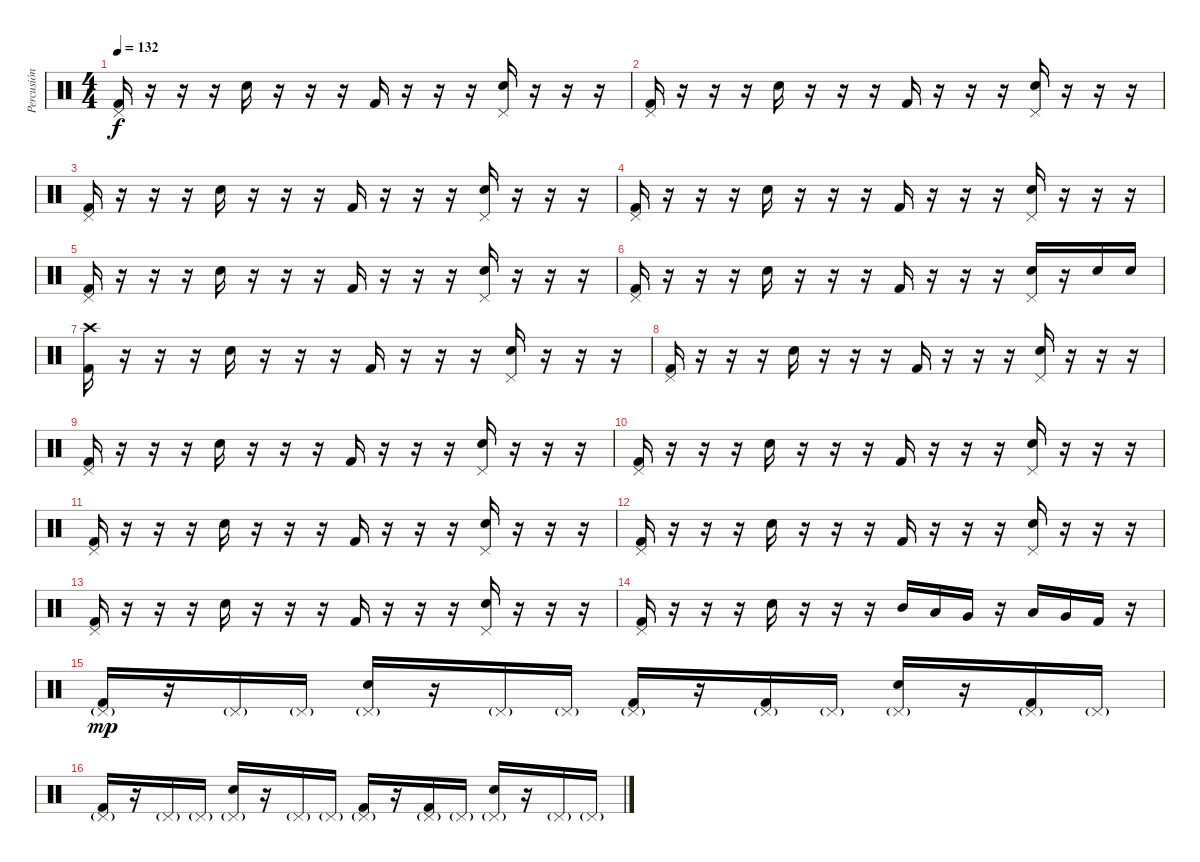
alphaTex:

\track ("Percusión" "Percusión") {instrument percussion}
\staff {score}
\articulation defaults
\ts (4 4)
\tempo 132
\clef neutral
\ks c
("Pedal Hi-Hat (hit)" "Kick (hit) 2").16{dy f} r.16 r.16 r.16 "Electric Snare (hit)".16 r.16 r.16 r.16 "Kick (hit) 2".16 r.16 r.16 r.16 ("Pedal Hi-Hat (hit)" "Electric Snare (hit)").16 r.16 r.16 r.16 |
("Pedal Hi-Hat (hit)" "Kick (hit) 2").16 r.16 r.16 r.16 "Electric Snare (hit)".16 r.16 r.16 r.16 "Kick (hit) 2".16 r.16 r.16 r.16 ("Pedal Hi-Hat (hit)" "Electric Snare (hit)").16 r.16 r.16 r.16 |
("Pedal Hi-Hat (hit)" "Kick (hit) 2").16 r.16 r.16 r.16 "Electric Snare (hit)".16 r.16 r.16 r.16 "Kick (hit) 2".16 r.16 r.16 r.16 ("Pedal Hi-Hat (hit)" "Electric Snare (hit)").16 r.16 r.16 r.16 |
("Pedal Hi-Hat (hit)" "Kick (hit) 2").16 r.16 r.16 r.16 "Electric Snare (hit)".16 r.16 r.16 r.16 "Kick (hit) 2".16 r.16 r.16 r.16 ("Pedal Hi-Hat (hit)" "Electric Snare (hit)").16 r.16 r.16 r.16 |
("Pedal Hi-Hat (hit)" "Kick (hit) 2").16 r.16 r.16 r.16 "Electric Snare (hit)".16 r.16 r.16 r.16 "Kick (hit) 2".16 r.16 r.16 r.16 ("Pedal Hi-Hat (hit)" "Electric Snare (hit)").16 r.16 r.16 r.16 |
("Pedal Hi-Hat (hit)" "Kick (hit) 2").16 r.16 r.16 r.16 "Electric Snare (hit)".16 r.16 r.16 r.16 "Kick (hit) 2".16 r.16 r.16 r.16 ("Pedal Hi-Hat (hit)" "Electric Snare (hit)").16 r.16 "Electric Snare (hit)".16 "Electric Snare (hit)".16 |
("Kick (hit) 2" "Crash high (hit)").16 r.16 r.16 r.16 "Electric Snare (hit)".16 r.16 r.16 r.16 "Kick (hit) 2".16 r.16 r.16 r.16 ("Pedal Hi-Hat (hit)" "Electric Snare (hit)").16 r.16 r.16 r.16 |
("Pedal Hi-Hat (hit)" "Kick (hit) 2").16 r.16 r.16 r.16 "Electric Snare (hit)".16 r.16 r.16 r.16 "Kick (hit) 2".16 r.16 r.16 r.16 ("Pedal Hi-Hat (hit)" "Electric Snare (hit)").16 r.16 r.16 r.16 |
("Pedal Hi-Hat (hit)" "Kick (hit) 2").16 r.16 r.16 r.16 "Electric Snare (hit)".16 r.16 r.16 r.16 "Kick (hit) 2".16 r.16 r.16 r.16 ("Pedal Hi-Hat (hit)" "Electric Snare (hit)").16 r.16 r.16 r.16 |
("Pedal Hi-Hat (hit)" "Kick (hit) 2").16 r.16 r.16 r.16 "Electric Snare (hit)".16 r.16 r.16 r.16 "Kick (hit) 2".16 r.16 r.16 r.16 ("Pedal Hi-Hat (hit)" "Electric Snare (hit)").16 r.16 r.16 r.16 |
("Pedal Hi-Hat (hit)" "Kick (hit) 2").16 r.16 r.16 r.16 "Electric Snare (hit)".16 r.16 r.16 r.16 "Kick (hit) 2".16 r.16 r.16 r.16 ("Pedal Hi-Hat (hit)" "Electric Snare (hit)").16 r.16 r.16 r.16 |
("Pedal Hi-Hat (hit)" "Kick (hit) 2").16 r.16 r.16 r.16 "Electric Snare (hit)".16 r.16 r.16 r.16 "Kick (hit) 2".16 r.16 r.16 r.16 ("Pedal Hi-Hat (hit)" "Electric Snare (hit)").16 r.16 r.16 r.16 |
("Pedal Hi-Hat (hit)" "Kick (hit) 2").16 r.16 r.16 r.16 "Electric Snare (hit)".16 r.16 r.16 r.16 "Kick (hit) 2".16 r.16 r.16 r.16 ("Pedal Hi-Hat (hit)" "Electric Snare (hit)").16 r.16 r.16 r.16 |
("Pedal Hi-Hat (hit)" "Kick (hit) 2").16 r.16 r.16 r.16 "Electric Snare (hit)".16 r.16 r.16 r.16 "Mid Tom (hit)".16 "Low Tom (hit)".16 "Very Low Tom (hit)".16 r.16 "Low Tom (hit)".16 "Very Low Tom (hit)".16 "Kick (hit) 2".16 r.16 |
("Pedal Hi-Hat (hit)"{g} "Kick (hit) 2").16{dy mp} r.16 "Pedal Hi-Hat (hit)"{g}.16 "Pedal Hi-Hat (hit)"{g}.16 ("Pedal Hi-Hat (hit)"{g} "Electric Snare (hit)").16 r.16 "Pedal Hi-Hat (hit)"{g}.16 "Pedal Hi-Hat (hit)"{g}.16 ("Pedal Hi-Hat (hit)"{g} "Kick (hit) 2").16 r.16 ("Pedal Hi-Hat (hit)"{g} "Kick (hit) 2").16 "Pedal Hi-Hat (hit)"{g}.16 ("Pedal Hi-Hat (hit)"{g} "Electric Snare (hit)").16 r.16 ("Pedal Hi-Hat (hit)"{g} "Kick (hit) 2").16 "Pedal Hi-Hat (hit)"{g}.16 |
("Pedal Hi-Hat (hit)"{g} "Kick (hit) 2").16 r.16 "Pedal Hi-Hat (hit)"{g}.16 "Pedal Hi-Hat (hit)"{g}.16 ("Pedal Hi-Hat (hit)"{g} "Electric Snare (hit)").16 r.16 "Pedal Hi-Hat (hit)"{g}.16 "Pedal Hi-Hat (hit)"{g}.16 ("Pedal Hi-Hat (hit)"{g} "Kick (hit) 2").16 r.16 ("Pedal Hi-Hat (hit)"{g} "Kick (hit) 2").16 "Pedal Hi-Hat (hit)"{g}.16 ("Pedal Hi-Hat (hit)"{g} "Electric Snare (hit)").16 r.16 "Pedal Hi-Hat (hit)"{g}.16 "Pedal Hi-Hat (hit)"{g}.16
